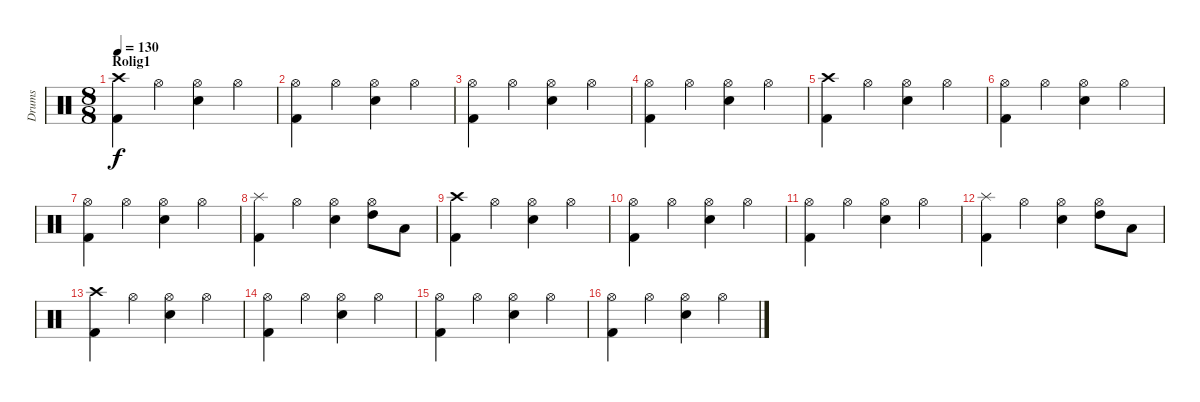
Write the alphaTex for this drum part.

\track ("Drums" "Drums") {instrument percussion}
\staff {score}
\articulation defaults
\ts (8 8)
\section ("" "Rolig1")
\tempo 130
\clef neutral
\ks c
("Kick (hit) 2" "Crash high (hit)").4{dy f} "Hi-Hat (open)".4 ("Electric Snare (hit)" "Hi-Hat (open)").4 "Hi-Hat (open)".4 |
("Kick (hit) 2" "Hi-Hat (open)").4 "Hi-Hat (open)".4 ("Electric Snare (hit)" "Hi-Hat (open)").4 "Hi-Hat (open)".4 |
("Kick (hit) 2" "Hi-Hat (open)").4 "Hi-Hat (open)".4 ("Electric Snare (hit)" "Hi-Hat (open)").4 "Hi-Hat (open)".4 |
("Kick (hit) 2" "Hi-Hat (open)").4 "Hi-Hat (open)".4 ("Electric Snare (hit)" "Hi-Hat (open)").4 "Hi-Hat (open)".4 |
("Kick (hit) 2" "Crash high (hit)").4 "Hi-Hat (open)".4 ("Electric Snare (hit)" "Hi-Hat (open)").4 "Hi-Hat (open)".4 |
("Kick (hit) 2" "Hi-Hat (open)").4 "Hi-Hat (open)".4 ("Electric Snare (hit)" "Hi-Hat (open)").4 "Hi-Hat (open)".4 |
("Kick (hit) 2" "Hi-Hat (open)").4 "Hi-Hat (open)".4 ("Electric Snare (hit)" "Hi-Hat (open)").4 "Hi-Hat (open)".4 |
("Kick (hit) 2" "Splash (hit)").4 "Hi-Hat (open)".4 ("Electric Snare (hit)" "Hi-Hat (open)").4 ("Hi-Hat (open)" "High Tom (hit)").8 "Low Tom (hit)".8 |
("Kick (hit) 2" "Crash high (hit)").4 "Hi-Hat (open)".4 ("Electric Snare (hit)" "Hi-Hat (open)").4 "Hi-Hat (open)".4 |
("Kick (hit) 2" "Hi-Hat (open)").4 "Hi-Hat (open)".4 ("Electric Snare (hit)" "Hi-Hat (open)").4 "Hi-Hat (open)".4 |
("Kick (hit) 2" "Hi-Hat (open)").4 "Hi-Hat (open)".4 ("Electric Snare (hit)" "Hi-Hat (open)").4 "Hi-Hat (open)".4 |
("Kick (hit) 2" "Splash (hit)").4 "Hi-Hat (open)".4 ("Electric Snare (hit)" "Hi-Hat (open)").4 ("Hi-Hat (open)" "High Tom (hit)").8 "Low Tom (hit)".8 |
("Kick (hit) 2" "Crash high (hit)").4 "Hi-Hat (open)".4 ("Electric Snare (hit)" "Hi-Hat (open)").4 "Hi-Hat (open)".4 |
("Kick (hit) 2" "Hi-Hat (open)").4 "Hi-Hat (open)".4 ("Electric Snare (hit)" "Hi-Hat (open)").4 "Hi-Hat (open)".4 |
("Kick (hit) 2" "Hi-Hat (open)").4 "Hi-Hat (open)".4 ("Electric Snare (hit)" "Hi-Hat (open)").4 "Hi-Hat (open)".4 |
("Kick (hit) 2" "Hi-Hat (open)").4 "Hi-Hat (open)".4 ("Electric Snare (hit)" "Hi-Hat (open)").4 "Hi-Hat (open)".4
